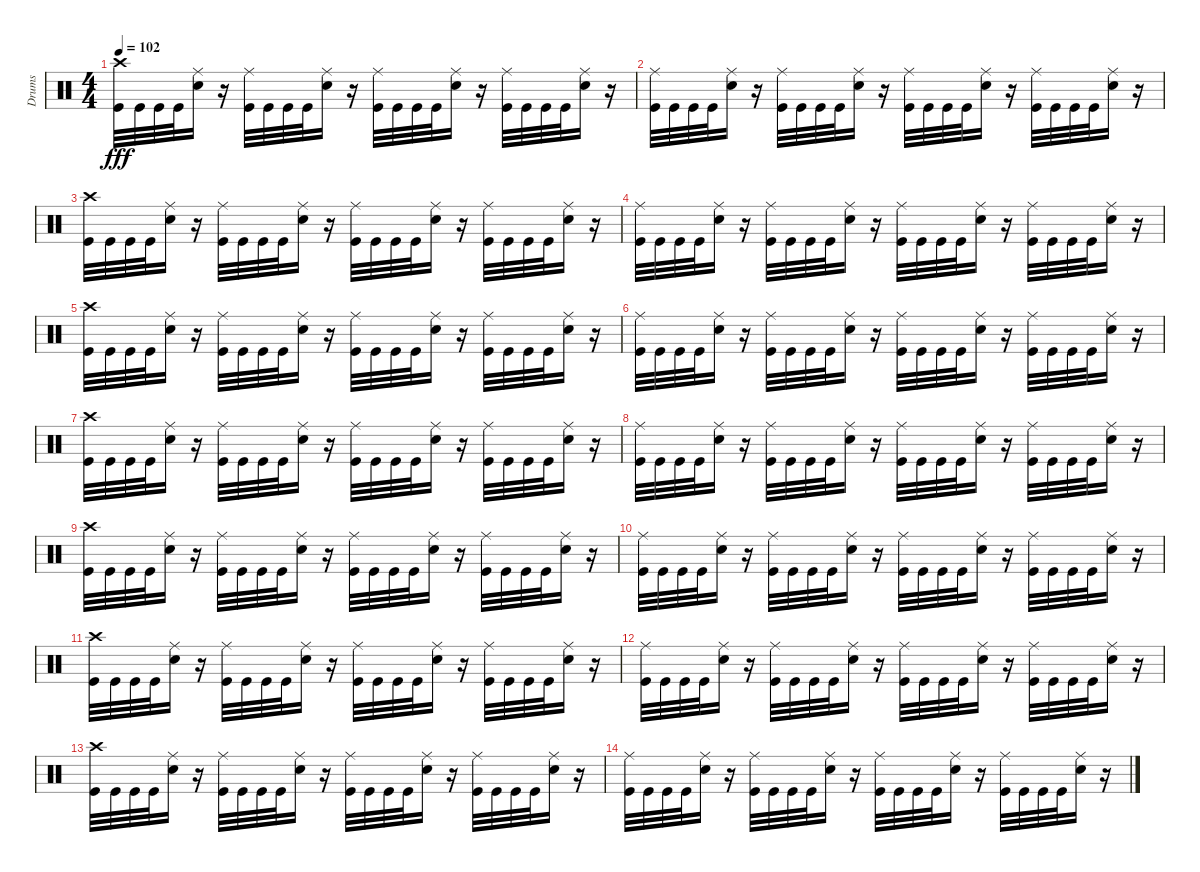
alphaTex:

\track ("Drums" "Drums") {instrument percussion}
\staff {score}
\articulation defaults
\ts (4 4)
\tempo 102
\clef neutral
\ks c
("Kick (hit)" "Crash high (hit)").32{dy fff volume 7} "Kick (hit)".32 "Kick (hit)".32{volume 7} "Kick (hit)".32 ("Snare (hit) 2" "Ride (middle)").16{volume 7} r.16 ("Kick (hit)" "Ride (middle)").32{volume 7} "Kick (hit)".32 "Kick (hit)".32{volume 7} "Kick (hit)".32 ("Snare (hit) 2" "Ride (middle)").16{volume 7} r.16 ("Kick (hit)" "Ride (middle)").32{volume 6} "Kick (hit)".32 "Kick (hit)".32{volume 6} "Kick (hit)".32 ("Snare (hit) 2" "Ride (middle)").16{volume 6} r.16 ("Kick (hit)" "Ride (middle)").32{volume 6} "Kick (hit)".32 "Kick (hit)".32{volume 6} "Kick (hit)".32 ("Snare (hit) 2" "Ride (middle)").16{volume 6} r.16 |
("Kick (hit)" "Ride (middle)").32{volume 6} "Kick (hit)".32 "Kick (hit)".32{volume 6} "Kick (hit)".32 ("Ride (middle)" "Snare (hit) 2").16{volume 6} r.16 ("Ride (middle)" "Kick (hit)").32{volume 6} "Kick (hit)".32 "Kick (hit)".32{volume 6} "Kick (hit)".32 ("Ride (middle)" "Snare (hit) 2").16{volume 6} r.16 ("Ride (middle)" "Kick (hit)").32{volume 6} "Kick (hit)".32 "Kick (hit)".32{volume 6} "Kick (hit)".32 ("Ride (middle)" "Snare (hit) 2").16{volume 6} r.16 ("Ride (middle)" "Kick (hit)").32{volume 6} "Kick (hit)".32 "Kick (hit)".32{volume 6} "Kick (hit)".32 ("Ride (middle)" "Snare (hit) 2").16{volume 6} r.16 |
("Crash high (hit)" "Kick (hit)").32{volume 6} "Kick (hit)".32 "Kick (hit)".32{volume 6} "Kick (hit)".32 ("Ride (middle)" "Snare (hit) 2").16{volume 6} r.16 ("Ride (middle)" "Kick (hit)").32{volume 6} "Kick (hit)".32 "Kick (hit)".32{volume 6} "Kick (hit)".32 ("Ride (middle)" "Snare (hit) 2").16{volume 6} r.16 ("Ride (middle)" "Kick (hit)").32{volume 6} "Kick (hit)".32 "Kick (hit)".32{volume 6} "Kick (hit)".32 ("Ride (middle)" "Snare (hit) 2").16{volume 6} r.16 ("Ride (middle)" "Kick (hit)").32{volume 5} "Kick (hit)".32 "Kick (hit)".32{volume 5} "Kick (hit)".32 ("Ride (middle)" "Snare (hit) 2").16{volume 5} r.16 |
("Ride (middle)" "Kick (hit)").32{volume 5} "Kick (hit)".32 "Kick (hit)".32{volume 5} "Kick (hit)".32 ("Snare (hit) 2" "Ride (middle)").16{volume 5} r.16 ("Kick (hit)" "Ride (middle)").32{volume 5} "Kick (hit)".32 "Kick (hit)".32{volume 5} "Kick (hit)".32 ("Snare (hit) 2" "Ride (middle)").16{volume 5} r.16 ("Kick (hit)" "Ride (middle)").32{volume 5} "Kick (hit)".32 "Kick (hit)".32{volume 5} "Kick (hit)".32 ("Snare (hit) 2" "Ride (middle)").16{volume 5} r.16 ("Kick (hit)" "Ride (middle)").32{volume 5} "Kick (hit)".32 "Kick (hit)".32{volume 5} "Kick (hit)".32 ("Snare (hit) 2" "Ride (middle)").16{volume 5} r.16 |
("Crash high (hit)" "Kick (hit)").32{volume 5} "Kick (hit)".32 "Kick (hit)".32{volume 5} "Kick (hit)".32 ("Ride (middle)" "Snare (hit) 2").16{volume 5} r.16 ("Ride (middle)" "Kick (hit)").32{volume 5} "Kick (hit)".32 "Kick (hit)".32{volume 5} "Kick (hit)".32 ("Ride (middle)" "Snare (hit) 2").16{volume 5} r.16 ("Ride (middle)" "Kick (hit)").32{volume 4} "Kick (hit)".32 "Kick (hit)".32{volume 4} "Kick (hit)".32 ("Ride (middle)" "Snare (hit) 2").16{volume 4} r.16 ("Ride (middle)" "Kick (hit)").32{volume 4} "Kick (hit)".32 "Kick (hit)".32{volume 4} "Kick (hit)".32 ("Ride (middle)" "Snare (hit) 2").16{volume 4} r.16 |
("Ride (middle)" "Kick (hit)").32{volume 4} "Kick (hit)".32 "Kick (hit)".32{volume 4} "Kick (hit)".32 ("Snare (hit) 2" "Ride (middle)").16{volume 4} r.16 ("Kick (hit)" "Ride (middle)").32{volume 4} "Kick (hit)".32 "Kick (hit)".32{volume 4} "Kick (hit)".32 ("Snare (hit) 2" "Ride (middle)").16{volume 4} r.16 ("Kick (hit)" "Ride (middle)").32{volume 4} "Kick (hit)".32 "Kick (hit)".32{volume 4} "Kick (hit)".32 ("Snare (hit) 2" "Ride (middle)").16{volume 4} r.16 ("Kick (hit)" "Ride (middle)").32{volume 4} "Kick (hit)".32 "Kick (hit)".32{volume 4} "Kick (hit)".32 ("Snare (hit) 2" "Ride (middle)").16{volume 4} r.16 |
("Crash high (hit)" "Kick (hit)").32{volume 4} "Kick (hit)".32 "Kick (hit)".32{volume 4} "Kick (hit)".32 ("Ride (middle)" "Snare (hit) 2").16{volume 4} r.16 ("Ride (middle)" "Kick (hit)").32{volume 4} "Kick (hit)".32 "Kick (hit)".32{volume 4} "Kick (hit)".32 ("Ride (middle)" "Snare (hit) 2").16{volume 4} r.16 ("Ride (middle)" "Kick (hit)").32{volume 4} "Kick (hit)".32 "Kick (hit)".32{volume 4} "Kick (hit)".32 ("Ride (middle)" "Snare (hit) 2").16{volume 4} r.16 ("Ride (middle)" "Kick (hit)").32{volume 4} "Kick (hit)".32 "Kick (hit)".32{volume 3} "Kick (hit)".32 ("Ride (middle)" "Snare (hit) 2").16{volume 3} r.16 |
("Ride (middle)" "Kick (hit)").32{volume 3} "Kick (hit)".32 "Kick (hit)".32{volume 3} "Kick (hit)".32 ("Snare (hit) 2" "Ride (middle)").16{volume 3} r.16 ("Kick (hit)" "Ride (middle)").32{volume 3} "Kick (hit)".32 "Kick (hit)".32{volume 3} "Kick (hit)".32 ("Snare (hit) 2" "Ride (middle)").16{volume 3} r.16 ("Kick (hit)" "Ride (middle)").32{volume 3} "Kick (hit)".32 "Kick (hit)".32{volume 3} "Kick (hit)".32 ("Snare (hit) 2" "Ride (middle)").16{volume 3} r.16 ("Kick (hit)" "Ride (middle)").32{volume 3} "Kick (hit)".32 "Kick (hit)".32{volume 3} "Kick (hit)".32 ("Snare (hit) 2" "Ride (middle)").16{volume 3} r.16 |
("Kick (hit)" "Crash high (hit)").32{volume 3} "Kick (hit)".32 "Kick (hit)".32{volume 3} "Kick (hit)".32 ("Snare (hit) 2" "Ride (middle)").16{volume 3} r.16 ("Kick (hit)" "Ride (middle)").32{volume 3} "Kick (hit)".32 "Kick (hit)".32{volume 3} "Kick (hit)".32 ("Snare (hit) 2" "Ride (middle)").16{volume 3} r.16 ("Kick (hit)" "Ride (middle)").32{volume 3} "Kick (hit)".32 "Kick (hit)".32{volume 3} "Kick (hit)".32 ("Snare (hit) 2" "Ride (middle)").16{volume 2} r.16 ("Kick (hit)" "Ride (middle)").32{volume 2} "Kick (hit)".32 "Kick (hit)".32{volume 2} "Kick (hit)".32 ("Snare (hit) 2" "Ride (middle)").16{volume 2} r.16 |
("Kick (hit)" "Ride (middle)").32{volume 2} "Kick (hit)".32 "Kick (hit)".32{volume 2} "Kick (hit)".32 ("Ride (middle)" "Snare (hit) 2").16{volume 2} r.16 ("Ride (middle)" "Kick (hit)").32{volume 2} "Kick (hit)".32 "Kick (hit)".32{volume 2} "Kick (hit)".32 ("Ride (middle)" "Snare (hit) 2").16{volume 2} r.16 ("Ride (middle)" "Kick (hit)").32{volume 2} "Kick (hit)".32 "Kick (hit)".32{volume 2} "Kick (hit)".32 ("Ride (middle)" "Snare (hit) 2").16{volume 2} r.16 ("Ride (middle)" "Kick (hit)").32{volume 2} "Kick (hit)".32 "Kick (hit)".32{volume 2} "Kick (hit)".32 ("Ride (middle)" "Snare (hit) 2").16{volume 2} r.16 |
("Kick (hit)" "Crash high (hit)").32{volume 2} "Kick (hit)".32 "Kick (hit)".32{volume 2} "Kick (hit)".32 ("Ride (middle)" "Snare (hit) 2").16{volume 2} r.16 ("Ride (middle)" "Kick (hit)").32{volume 2} "Kick (hit)".32 "Kick (hit)".32{volume 2} "Kick (hit)".32 ("Ride (middle)" "Snare (hit) 2").16{volume 2} r.16 ("Ride (middle)" "Kick (hit)").32{volume 2} "Kick (hit)".32 "Kick (hit)".32{volume 2} "Kick (hit)".32 ("Ride (middle)" "Snare (hit) 2").16{volume 2} r.16 ("Ride (middle)" "Kick (hit)").32{volume 2} "Kick (hit)".32 "Kick (hit)".32{volume 2} "Kick (hit)".32 ("Ride (middle)" "Snare (hit) 2").16{volume 2} r.16 |
("Ride (middle)" "Kick (hit)").32{volume 1} "Kick (hit)".32 "Kick (hit)".32{volume 1} "Kick (hit)".32 ("Snare (hit) 2" "Ride (middle)").16{volume 1} r.16 ("Kick (hit)" "Ride (middle)").32{volume 1} "Kick (hit)".32 "Kick (hit)".32{volume 1} "Kick (hit)".32 ("Snare (hit) 2" "Ride (middle)").16{volume 1} r.16 ("Kick (hit)" "Ride (middle)").32{volume 1} "Kick (hit)".32 "Kick (hit)".32{volume 1} "Kick (hit)".32 ("Snare (hit) 2" "Ride (middle)").16{volume 1} r.16 ("Kick (hit)" "Ride (middle)").32{volume 1} "Kick (hit)".32 "Kick (hit)".32{volume 1} "Kick (hit)".32 ("Snare (hit) 2" "Ride (middle)").16{volume 1} r.16 |
("Kick (hit)" "Crash high (hit)").32{volume 1} "Kick (hit)".32 "Kick (hit)".32{volume 1} "Kick (hit)".32 ("Snare (hit) 2" "Ride (middle)").16{volume 1} r.16 ("Kick (hit)" "Ride (middle)").32{volume 1} "Kick (hit)".32 "Kick (hit)".32{volume 1} "Kick (hit)".32 ("Snare (hit) 2" "Ride (middle)").16{volume 1} r.16 ("Kick (hit)" "Ride (middle)").32{volume 1} "Kick (hit)".32 "Kick (hit)".32{volume 1} "Kick (hit)".32 ("Snare (hit) 2" "Ride (middle)").16{volume 1} r.16 ("Kick (hit)" "Ride (middle)").32{volume 0} "Kick (hit)".32 "Kick (hit)".32{volume 0} "Kick (hit)".32 ("Snare (hit) 2" "Ride (middle)").16{volume 0} r.16 |
("Kick (hit)" "Ride (middle)").32{volume 0} "Kick (hit)".32 "Kick (hit)".32{volume 0} "Kick (hit)".32 ("Ride (middle)" "Snare (hit) 2").16{volume 0} r.16 ("Ride (middle)" "Kick (hit)").32{volume 0} "Kick (hit)".32 "Kick (hit)".32{volume 0} "Kick (hit)".32 ("Ride (middle)" "Snare (hit) 2").16{volume 0} r.16 ("Ride (middle)" "Kick (hit)").32{volume 0} "Kick (hit)".32 "Kick (hit)".32{volume 0} "Kick (hit)".32 ("Ride (middle)" "Snare (hit) 2").16{volume 0} r.16 ("Ride (middle)" "Kick (hit)").32{volume 0} "Kick (hit)".32 "Kick (hit)".32{volume 0} "Kick (hit)".32 ("Ride (middle)" "Snare (hit) 2").16{volume 0} r.16
